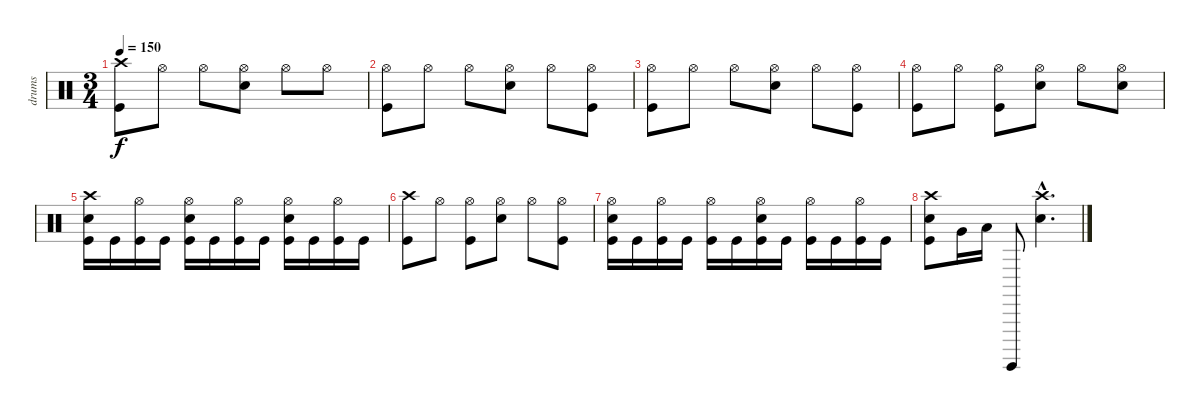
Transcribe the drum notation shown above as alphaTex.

\track ("drums" "drums") {instrument percussion}
\staff {score}
\articulation defaults
\ts (3 4)
\tempo 150
\clef neutral
\ks c
("Crash high (hit)" "Kick (hit)").8{dy f} "Hi-Hat (open)".8 "Hi-Hat (open)".8 ("Hi-Hat (open)" "Snare (hit) 2").8 "Hi-Hat (open)".8 "Hi-Hat (open)".8 |
("Hi-Hat (open)" "Kick (hit)").8 "Hi-Hat (open)".8 "Hi-Hat (open)".8 ("Hi-Hat (open)" "Snare (hit) 2").8 "Hi-Hat (open)".8 ("Hi-Hat (open)" "Kick (hit)").8 |
("Hi-Hat (open)" "Kick (hit)").8 "Hi-Hat (open)".8 "Hi-Hat (open)".8 ("Hi-Hat (open)" "Snare (hit) 2").8 "Hi-Hat (open)".8 ("Hi-Hat (open)" "Kick (hit)").8 |
("Hi-Hat (open)" "Kick (hit)").8 "Hi-Hat (open)".8 ("Hi-Hat (open)" "Kick (hit)").8 ("Hi-Hat (open)" "Snare (hit) 2").8 "Hi-Hat (open)".8 ("Hi-Hat (open)" "Snare (hit) 2").8 |
("Crash high (hit)" "Snare (hit) 2" "Kick (hit)").16 "Kick (hit)".16 ("Hi-Hat (open)" "Kick (hit)").16 "Kick (hit)".16 ("Hi-Hat (open)" "Snare (hit) 2" "Kick (hit)").16 "Kick (hit)".16 ("Hi-Hat (open)" "Kick (hit)").16 "Kick (hit)".16 ("Hi-Hat (open)" "Snare (hit) 2" "Kick (hit)").16 "Kick (hit)".16 ("Hi-Hat (open)" "Kick (hit)").16 "Kick (hit)".16 |
("Crash high (hit)" "Kick (hit)").8 "Hi-Hat (open)".8 ("Hi-Hat (open)" "Kick (hit)").8 ("Hi-Hat (open)" "Snare (hit) 2").8 "Hi-Hat (open)".8 ("Hi-Hat (open)" "Kick (hit)").8 |
("Hi-Hat (open)" "Snare (hit) 2" "Kick (hit)").16 "Kick (hit)".16 ("Hi-Hat (open)" "Kick (hit)").16 "Kick (hit)".16 ("Hi-Hat (open)" "Kick (hit)").16 "Kick (hit)".16 ("Hi-Hat (open)" "Snare (hit) 2" "Kick (hit)").16 "Kick (hit)".16 ("Hi-Hat (open)" "Kick (hit)").16 "Kick (hit)".16 ("Hi-Hat (open)" "Kick (hit)").16 "Kick (hit)".16 |
("Crash high (hit)" "Snare (hit) 2" "Kick (hit)").8 "Very Low Tom (hit)".16 "Low Floor Tom (hit)".16 "Surdo (hit)".8 ("Crash high (hit)"{hac} "Snare (hit) 2"{hac}).4{d}
